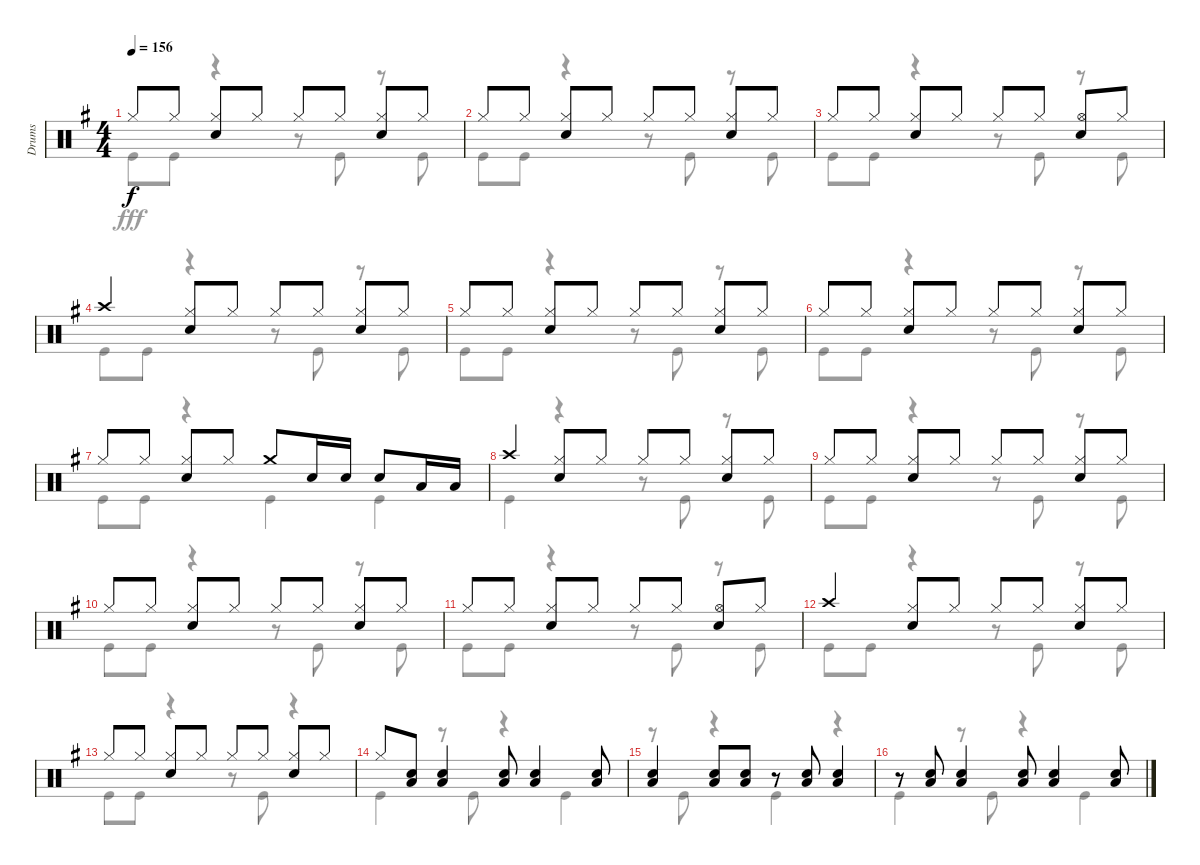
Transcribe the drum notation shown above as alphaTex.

\track ("Drums" "Drums") {instrument percussion}
\staff {score}
\articulation defaults
\voice
\ts (4 4)
\tempo 156
\clef neutral
\ks g "Hi-Hat (closed)".8{dy f} "Hi-Hat (closed)".8
("Hi-Hat (closed)" "Snare (hit) 2").8 "Hi-Hat (closed)".8 "Hi-Hat (closed)".8 "Hi-Hat (closed)".8 ("Hi-Hat (closed)" "Snare (hit) 2").8 "Hi-Hat (closed)".8 |
"Hi-Hat (closed)".8 "Hi-Hat (closed)".8 ("Hi-Hat (closed)" "Snare (hit) 2").8 "Hi-Hat (closed)".8 "Hi-Hat (closed)".8 "Hi-Hat (closed)".8 ("Hi-Hat (closed)" "Snare (hit) 2").8 "Hi-Hat (closed)".8 |
"Hi-Hat (closed)".8 "Hi-Hat (closed)".8 ("Hi-Hat (closed)" "Snare (hit) 2").8 "Hi-Hat (closed)".8 "Hi-Hat (closed)".8 "Hi-Hat (closed)".8 ("Hi-Hat (open)" "Snare (hit) 2").8 "Hi-Hat (closed)".8 |
"Crash high (hit)".4 ("Hi-Hat (closed)" "Snare (hit) 2").8 "Hi-Hat (closed)".8 "Hi-Hat (closed)".8 "Hi-Hat (closed)".8 ("Hi-Hat (closed)" "Snare (hit) 2").8 "Hi-Hat (closed)".8 |
"Hi-Hat (closed)".8 "Hi-Hat (closed)".8 ("Hi-Hat (closed)" "Snare (hit) 2").8 "Hi-Hat (closed)".8 "Hi-Hat (closed)".8 "Hi-Hat (closed)".8 ("Hi-Hat (closed)" "Snare (hit) 2").8 "Hi-Hat (closed)".8 |
"Hi-Hat (closed)".8 "Hi-Hat (closed)".8 ("Hi-Hat (closed)" "Snare (hit) 2").8 "Hi-Hat (closed)".8 "Hi-Hat (closed)".8 "Hi-Hat (closed)".8 ("Hi-Hat (closed)" "Snare (hit) 2").8 "Hi-Hat (closed)".8 |
"Hi-Hat (closed)".8 "Hi-Hat (closed)".8 ("Hi-Hat (closed)" "Snare (hit) 2").8 "Hi-Hat (closed)".8 "Crash medium (hit)".8 "Snare (hit) 2".16 "Snare (hit) 2".16 "Snare (hit) 2".8 "Low Tom (hit)".16 "Low Tom (hit)".16 |
"Crash high (hit)".4 ("Hi-Hat (closed)" "Snare (hit) 2").8 "Hi-Hat (closed)".8 "Hi-Hat (closed)".8 "Hi-Hat (closed)".8 ("Hi-Hat (closed)" "Snare (hit) 2").8 "Hi-Hat (closed)".8 |
"Hi-Hat (closed)".8 "Hi-Hat (closed)".8 ("Hi-Hat (closed)" "Snare (hit) 2").8 "Hi-Hat (closed)".8 "Hi-Hat (closed)".8 "Hi-Hat (closed)".8 ("Hi-Hat (closed)" "Snare (hit) 2").8 "Hi-Hat (closed)".8 |
"Hi-Hat (closed)".8 "Hi-Hat (closed)".8 ("Hi-Hat (closed)" "Snare (hit) 2").8 "Hi-Hat (closed)".8 "Hi-Hat (closed)".8 "Hi-Hat (closed)".8 ("Hi-Hat (closed)" "Snare (hit) 2").8 "Hi-Hat (closed)".8 |
"Hi-Hat (closed)".8 "Hi-Hat (closed)".8 ("Hi-Hat (closed)" "Snare (hit) 2").8 "Hi-Hat (closed)".8 "Hi-Hat (closed)".8 "Hi-Hat (closed)".8 ("Hi-Hat (open)" "Snare (hit) 2").8 "Hi-Hat (closed)".8 |
"Crash high (hit)".4 ("Hi-Hat (closed)" "Snare (hit) 2").8 "Hi-Hat (closed)".8 "Hi-Hat (closed)".8 "Hi-Hat (closed)".8 ("Hi-Hat (closed)" "Snare (hit) 2").8 "Hi-Hat (closed)".8 |
"Hi-Hat (closed)".8 "Hi-Hat (closed)".8 ("Hi-Hat (closed)" "Snare (hit) 2").8 "Hi-Hat (closed)".8 "Hi-Hat (closed)".8 "Hi-Hat (closed)".8 ("Hi-Hat (closed)" "Snare (hit) 2").8 "Hi-Hat (closed)".8 |
"Hi-Hat (closed)".8 ("Snare (hit) 2" "Low Tom (hit)").8 ("Snare (hit) 2" "Low Tom (hit)").4 ("Snare (hit) 2" "Low Tom (hit)").8 ("Snare (hit) 2" "Low Tom (hit)").4 ("Snare (hit) 2" "Low Tom (hit)").8 |
("Snare (hit) 2" "Low Tom (hit)").4 ("Snare (hit) 2" "Low Tom (hit)").8 ("Snare (hit) 2" "Low Tom (hit)").8 r.8 ("Snare (hit) 2" "Low Tom (hit)").8 ("Snare (hit) 2" "Low Tom (hit)").4 |
r.8 ("Snare (hit) 2" "Low Tom (hit)").8 ("Snare (hit) 2" "Low Tom (hit)").4 ("Snare (hit) 2" "Low Tom (hit)").8 ("Snare (hit) 2" "Low Tom (hit)").4 ("Snare (hit) 2" "Low Tom (hit)").8
\voice
\clef neutral
\ottava regular
\simile none
\ks g "Kick (hit)".8{dy fff} "Kick (hit)".8
r.4 r.8 "Kick (hit)".8 r.8 "Kick (hit)".8 |
"Kick (hit)".8 "Kick (hit)".8 r.4 r.8 "Kick (hit)".8 r.8 "Kick (hit)".8 |
"Kick (hit)".8 "Kick (hit)".8 r.4 r.8 "Kick (hit)".8 r.8 "Kick (hit)".8 |
"Kick (hit)".8 "Kick (hit)".8 r.4 r.8 "Kick (hit)".8 r.8 "Kick (hit)".8 |
"Kick (hit)".8 "Kick (hit)".8 r.4 r.8 "Kick (hit)".8 r.8 "Kick (hit)".8 |
"Kick (hit)".8 "Kick (hit)".8 r.4 r.8 "Kick (hit)".8 r.8 "Kick (hit)".8 |
"Kick (hit)".8 "Kick (hit)".8 r.4 "Kick (hit)".4 "Kick (hit)".4 |
"Kick (hit)".4 r.4 r.8 "Kick (hit)".8 r.8 "Kick (hit)".8 |
"Kick (hit)".8 "Kick (hit)".8 r.4 r.8 "Kick (hit)".8 r.8 "Kick (hit)".8 |
"Kick (hit)".8 "Kick (hit)".8 r.4 r.8 "Kick (hit)".8 r.8 "Kick (hit)".8 |
"Kick (hit)".8 "Kick (hit)".8 r.4 r.8 "Kick (hit)".8 r.8 "Kick (hit)".8 |
"Kick (hit)".8 "Kick (hit)".8 r.4 r.8 "Kick (hit)".8 r.8 "Kick (hit)".8 |
"Kick (hit)".8 "Kick (hit)".8 r.4 r.8 "Kick (hit)".8 r.4 |
"Kick (hit)".4 r.8 "Kick (hit)".8 r.4 "Kick (hit)".4 |
r.8 "Kick (hit)".8 r.4 "Kick (hit)".4 r.4 |
"Kick (hit)".4 r.8 "Kick (hit)".8 r.4 "Kick (hit)".4
